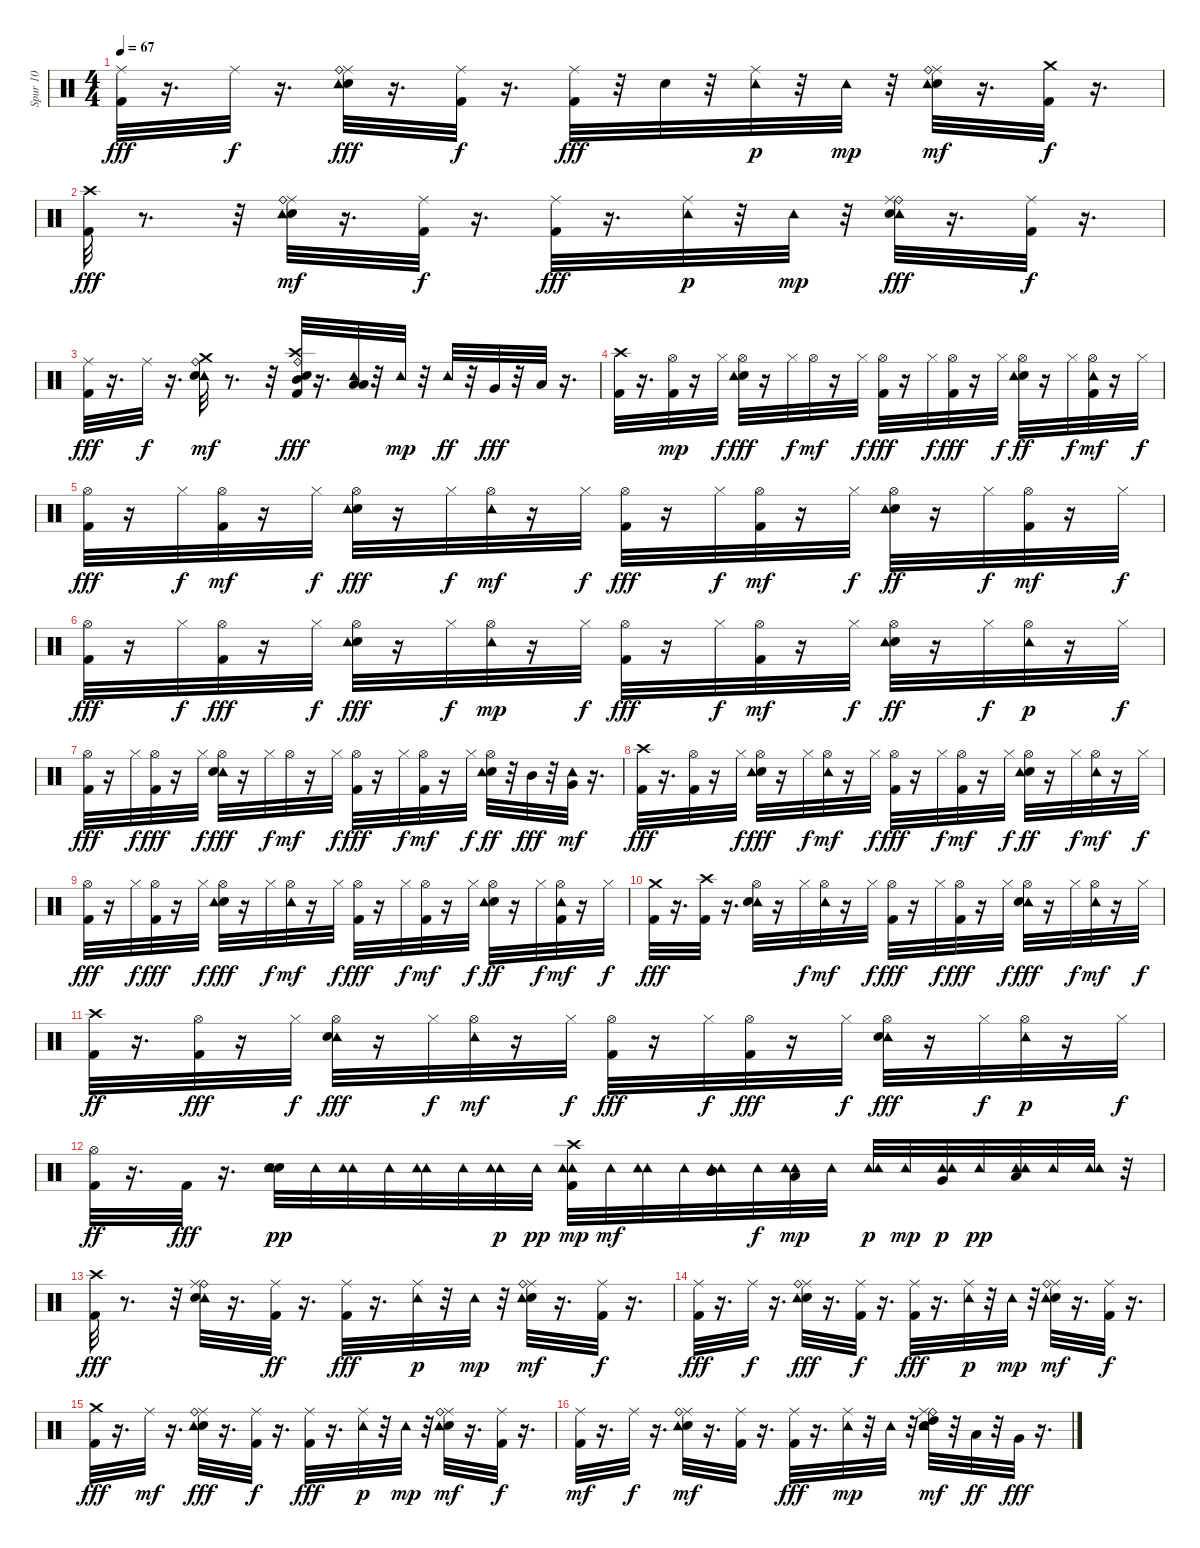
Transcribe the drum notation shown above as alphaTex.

\track ("Spur 10" "Spur 10") {instrument percussion}
\staff {score}
\articulation defaults
\ts (4 4)
\tempo 67
\clef neutral
\ks c
("Ride (middle)" "Kick (hit) 2").32{dy fff} r.16{d} "Ride (middle)".32{dy f} r.16{d} ("Snare (hit) 2" "Ride (middle)" "Ride (bell)" "Tambourine (hit)").32{dy fff} r.16{d} ("Ride (middle)" "Kick (hit) 2").32{dy f} r.16{d} ("Ride (middle)" "Kick (hit) 2").32{dy fff} r.32 "Snare (hit) 2".32 r.32 ("Tambourine (hit)" "Ride (middle)").32{dy p} r.32 "Tambourine (hit)".32{dy mp} r.32 ("Snare (hit) 2" "Ride (middle)" "Ride (bell)" "Tambourine (hit)").32{dy mf} r.16{d} ("Crash medium (hit)" "Kick (hit) 2").32{dy f} r.16{d} |
("Crash high (hit)" "Kick (hit) 2").32{dy fff} r.8{d} r.32 ("Ride (middle)" "Snare (hit) 2" "Ride (bell)" "Tambourine (hit)").32{dy mf} r.16{d} ("Ride (middle)" "Kick (hit) 2").32{dy f} r.16{d} ("Ride (middle)" "Kick (hit) 2").32{dy fff} r.16{d} ("Ride (middle)" "Tambourine (hit)").32{dy p} r.32 "Tambourine (hit)".32{dy mp} r.32 ("Tambourine (hit)" "Ride (bell)" "Snare (hit) 2" "Ride (middle)").32{dy fff} r.16{d} ("Kick (hit) 2" "Ride (middle)").32{dy f} r.16{d} |
("Ride (middle)" "Kick (hit) 2").32{dy fff} r.16{d} "Ride (middle)".32{dy f} r.16{d} ("Tambourine (hit)" "Crash medium (hit)" "Snare (hit) 2" "Ride (bell)").32{dy mf} r.8{d} r.32 ("Kick (hit) 2" "Crash high (hit)" "Snare (hit) 2" "Ride (bell)" "Mid Tom (hit)").32{dy fff} r.16{d} ("Low Tom (hit)" "Tambourine (hit)" "Low Tom (hit)").32 r.32 "Tambourine (hit)".32{dy mp} r.32 "Tambourine (hit)".32{dy ff} r.32 "Very Low Tom (hit)".32{dy fff} r.32 "Low Floor Tom (hit)".32 r.16{d} |
("Crash high (hit)" "Kick (hit) 2").32 r.16{d} ("Kick (hit) 2" "Hi-Hat (open)").32{dy mp} r.16 "Hi-Hat (closed)".32{dy f} ("Snare (hit) 2" "Hi-Hat (open)" "Tambourine (hit)").32{dy fff} r.16 "Hi-Hat (closed)".32{dy f} "Hi-Hat (open)".32{dy mf} r.16 "Hi-Hat (closed)".32{dy f} ("Hi-Hat (open)" "Kick (hit) 2").32{dy fff} r.16 "Hi-Hat (closed)".32{dy f} ("Hi-Hat (open)" "Kick (hit) 2").32{dy fff} r.16 "Hi-Hat (closed)".32{dy f} ("Snare (hit) 2" "Hi-Hat (open)" "Tambourine (hit)").32{dy ff} r.16 "Hi-Hat (closed)".32{dy f} ("Kick (hit) 2" "Tambourine (hit)" "Hi-Hat (open)").32{dy mf} r.16 "Hi-Hat (closed)".32{dy f} |
("Kick (hit) 2" "Hi-Hat (open)").32{dy fff} r.16 "Hi-Hat (closed)".32{dy f} ("Kick (hit) 2" "Hi-Hat (open)").32{dy mf} r.16 "Hi-Hat (closed)".32{dy f} ("Snare (hit) 2" "Hi-Hat (open)" "Tambourine (hit)").32{dy fff} r.16 "Hi-Hat (closed)".32{dy f} ("Tambourine (hit)" "Hi-Hat (open)").32{dy mf} r.16 "Hi-Hat (closed)".32{dy f} ("Hi-Hat (open)" "Kick (hit) 2").32{dy fff} r.16 "Hi-Hat (closed)".32{dy f} ("Kick (hit) 2" "Hi-Hat (open)").32{dy mf} r.16 "Hi-Hat (closed)".32{dy f} ("Snare (hit) 2" "Hi-Hat (open)" "Tambourine (hit)").32{dy ff} r.16 "Hi-Hat (closed)".32{dy f} ("Hi-Hat (open)" "Kick (hit) 2").32{dy mf} r.16 "Hi-Hat (closed)".32{dy f} |
("Hi-Hat (open)" "Kick (hit) 2").32{dy fff} r.16 "Hi-Hat (closed)".32{dy f} ("Hi-Hat (open)" "Kick (hit) 2").32{dy fff} r.16 "Hi-Hat (closed)".32{dy f} ("Snare (hit) 2" "Hi-Hat (open)" "Tambourine (hit)").32{dy fff} r.16 "Hi-Hat (closed)".32{dy f} ("Hi-Hat (open)" "Tambourine (hit)").32{dy mp} r.16 "Hi-Hat (closed)".32{dy f} ("Kick (hit) 2" "Hi-Hat (open)").32{dy fff} r.16 "Hi-Hat (closed)".32{dy f} ("Kick (hit) 2" "Hi-Hat (open)").32{dy mf} r.16 "Hi-Hat (closed)".32{dy f} ("Snare (hit) 2" "Hi-Hat (open)" "Tambourine (hit)").32{dy ff} r.16 "Hi-Hat (closed)".32{dy f} ("Hi-Hat (open)" "Tambourine (hit)").32{dy p} r.16 "Hi-Hat (closed)".32{dy f} |
("Kick (hit) 2" "Hi-Hat (open)").32{dy fff} r.16 "Hi-Hat (closed)".32{dy f} ("Hi-Hat (open)" "Kick (hit) 2").32{dy fff} r.16 "Hi-Hat (closed)".32{dy f} ("Tambourine (hit)" "Hi-Hat (open)" "Snare (hit) 2").32{dy fff} r.16 "Hi-Hat (closed)".32{dy f} "Hi-Hat (open)".32{dy mf} r.16 "Hi-Hat (closed)".32{dy f} ("Hi-Hat (open)" "Kick (hit) 2").32{dy fff} r.16 "Hi-Hat (closed)".32{dy f} ("Kick (hit) 2" "Hi-Hat (open)").32{dy mf} r.16 "Hi-Hat (closed)".32{dy f} ("Hi-Hat (open)" "Snare (hit) 2" "Tambourine (hit)").32{dy ff} r.32 "Mid Tom (hit)".32{dy fff} r.32 ("Very Low Tom (hit)" "Tambourine (hit)").32{dy mf} r.16{d} |
("Kick (hit) 2" "Crash high (hit)").32{dy fff} r.16{d} ("Hi-Hat (open)" "Kick (hit) 2").32 r.16 "Hi-Hat (closed)".32{dy f} ("Hi-Hat (open)" "Snare (hit) 2" "Tambourine (hit)").32{dy fff} r.16 "Hi-Hat (closed)".32{dy f} ("Tambourine (hit)" "Hi-Hat (open)").32{dy mf} r.16 "Hi-Hat (closed)".32{dy f} ("Hi-Hat (open)" "Kick (hit) 2").32{dy fff} r.16 "Hi-Hat (closed)".32{dy f} ("Kick (hit) 2" "Hi-Hat (open)").32{dy mf} r.16 "Hi-Hat (closed)".32{dy f} ("Snare (hit) 2" "Tambourine (hit)" "Hi-Hat (open)").32{dy ff} r.16 "Hi-Hat (closed)".32{dy f} ("Hi-Hat (open)" "Tambourine (hit)").32{dy mf} r.16 "Hi-Hat (closed)".32{dy f} |
("Hi-Hat (open)" "Kick (hit) 2").32{dy fff} r.16 "Hi-Hat (closed)".32{dy f} ("Hi-Hat (open)" "Kick (hit) 2").32{dy fff} r.16 "Hi-Hat (closed)".32{dy f} ("Hi-Hat (open)" "Snare (hit) 2" "Tambourine (hit)").32{dy fff} r.16 "Hi-Hat (closed)".32{dy f} ("Tambourine (hit)" "Hi-Hat (open)").32{dy mf} r.16 "Hi-Hat (closed)".32{dy f} ("Hi-Hat (open)" "Kick (hit) 2").32{dy fff} r.16 "Hi-Hat (closed)".32{dy f} ("Kick (hit) 2" "Hi-Hat (open)").32{dy mf} r.16 "Hi-Hat (closed)".32{dy f} ("Snare (hit) 2" "Hi-Hat (open)" "Tambourine (hit)").32{dy ff} r.16 "Hi-Hat (closed)".32{dy f} ("Tambourine (hit)" "Hi-Hat (open)" "Kick (hit) 2").32{dy mf} r.16 "Hi-Hat (closed)".32{dy f} |
("Crash medium (hit)" "Kick (hit) 2").32{dy fff} r.16{d} ("Crash high (hit)" "Kick (hit) 2").32 r.16{d} ("Tambourine (hit)" "Hi-Hat (open)" "Snare (hit) 2").32 r.16 "Hi-Hat (closed)".32{dy f} ("Tambourine (hit)" "Hi-Hat (open)").32{dy mf} r.16 "Hi-Hat (closed)".32{dy f} ("Kick (hit) 2" "Hi-Hat (open)").32{dy fff} r.16 "Hi-Hat (closed)".32{dy f} ("Hi-Hat (open)" "Kick (hit) 2").32{dy fff} r.16 "Hi-Hat (closed)".32{dy f} ("Tambourine (hit)" "Hi-Hat (open)" "Snare (hit) 2").32{dy fff} r.16 "Hi-Hat (closed)".32{dy f} ("Tambourine (hit)" "Hi-Hat (open)").32{dy mf} r.16 "Hi-Hat (closed)".32{dy f} |
("Kick (hit) 2" "Crash high (hit)").32{dy ff} r.16{d} ("Hi-Hat (open)" "Kick (hit) 2").32{dy fff} r.16 "Hi-Hat (closed)".32{dy f} ("Tambourine (hit)" "Hi-Hat (open)" "Snare (hit) 2").32{dy fff} r.16 "Hi-Hat (closed)".32{dy f} ("Tambourine (hit)" "Hi-Hat (open)").32{dy mf} r.16 "Hi-Hat (closed)".32{dy f} ("Kick (hit) 2" "Hi-Hat (open)").32{dy fff} r.16 "Hi-Hat (closed)".32{dy f} ("Hi-Hat (open)" "Kick (hit) 2").32{dy fff} r.16 "Hi-Hat (closed)".32{dy f} ("Tambourine (hit)" "Hi-Hat (open)" "Snare (hit) 2").32{dy fff} r.16 "Hi-Hat (closed)".32{dy f} ("Hi-Hat (open)" "Tambourine (hit)").32{dy p} r.16 "Hi-Hat (closed)".32{dy f} |
("Kick (hit) 2" "Hi-Hat (open)").32{dy ff} r.16{d} "Kick (hit) 2".32{dy fff} r.16{d} ("Snare (hit) 2" "Tambourine (hit)" "Snare (hit) 2" "Tambourine (hit)").32{dy pp} "Tambourine (hit)".32 ("Tambourine (hit)" "Tambourine (hit)").32 "Tambourine (hit)".32 ("Tambourine (hit)" "Tambourine (hit)").32 "Tambourine (hit)".32 ("Tambourine (hit)" "Tambourine (hit)").32{dy p} "Tambourine (hit)".32{dy pp} ("Tambourine (hit)" "Crash high (hit)" "Kick (hit) 2" "Tambourine (hit)").32{dy mp} "Tambourine (hit)".32{dy mf} ("Tambourine (hit)" "Tambourine (hit)").32 "Tambourine (hit)".32 ("Mid Tom (hit)" "Tambourine (hit)" "Mid Tom (hit)" "Tambourine (hit)").32 "Tambourine (hit)".32{dy f} ("Low Tom (hit)" "Tambourine (hit)" "Tambourine (hit)").32{dy mp} "Tambourine (hit)".32 ("Tambourine (hit)" "Tambourine (hit)").32{dy p} "Tambourine (hit)".32{dy mp} ("Very Low Tom (hit)" "Tambourine (hit)" "Tambourine (hit)").32{dy p} "Tambourine (hit)".32{dy pp} ("Low Floor Tom (hit)" "Tambourine (hit)" "Tambourine (hit)").32 "Tambourine (hit)".32 ("Tambourine (hit)" "Tambourine (hit)").32 r.32 |
("Kick (hit) 2" "Crash high (hit)").32{dy fff} r.8{d} r.32 ("Tambourine (hit)" "Ride (bell)" "Ride (middle)" "Snare (hit) 2").32 r.16{d} ("Kick (hit) 2" "Ride (middle)").32{dy ff} r.16{d} ("Kick (hit) 2" "Ride (middle)").32{dy fff} r.16{d} ("Ride (middle)" "Tambourine (hit)").32{dy p} r.32 "Tambourine (hit)".32{dy mp} r.32 ("Snare (hit) 2" "Ride (middle)" "Tambourine (hit)" "Ride (bell)").32{dy mf} r.16{d} ("Ride (middle)" "Kick (hit) 2").32{dy f} r.16{d} |
("Ride (middle)" "Kick (hit) 2").32{dy fff} r.16{d} "Ride (middle)".32{dy f} r.16{d} ("Snare (hit) 2" "Ride (middle)" "Tambourine (hit)" "Ride (bell)").32{dy fff} r.16{d} ("Ride (middle)" "Kick (hit) 2").32{dy f} r.16{d} ("Ride (middle)" "Kick (hit) 2").32{dy fff} r.16{d} ("Tambourine (hit)" "Ride (middle)").32{dy p} r.32 "Tambourine (hit)".32{dy mp} r.32 ("Snare (hit) 2" "Ride (middle)" "Ride (bell)" "Tambourine (hit)").32{dy mf} r.16{d} ("Ride (middle)" "Kick (hit) 2").32{dy f} r.16{d} |
("Kick (hit) 2" "Crash medium (hit)").32{dy fff} r.16{d} "Ride (middle)".32{dy mf} r.16{d} ("Snare (hit) 2" "Ride (middle)" "Ride (bell)" "Tambourine (hit)").32{dy fff} r.16{d} ("Ride (middle)" "Kick (hit) 2").32{dy f} r.16{d} ("Ride (middle)" "Kick (hit) 2").32{dy fff} r.16{d} ("Ride (middle)" "Tambourine (hit)").32{dy p} r.32 "Tambourine (hit)".32{dy mp} r.32 ("Snare (hit) 2" "Ride (middle)" "Ride (bell)" "Tambourine (hit)").32{dy mf} r.16{d} ("Ride (middle)" "Kick (hit) 2").32{dy f} r.16{d} |
("Kick (hit) 2" "Ride (middle)").32{dy mf} r.16{d} "Ride (middle)".32{dy f} r.16{d} ("Snare (hit) 2" "Ride (middle)" "Ride (bell)" "Tambourine (hit)").32{dy mf} r.16{d} ("Kick (hit) 2" "Ride (middle)").32 r.16{d} ("Ride (middle)" "Kick (hit) 2").32{dy fff} r.16{d} ("Tambourine (hit)" "Ride (middle)").32{dy mp} r.32 "Tambourine (hit)".32 r.32 ("Ride (bell)" "High Tom (hit)" "Tambourine (hit)" "Snare (hit) 2" "Ride (middle)").32{dy mf} r.32 "Low Tom (hit)".32{dy ff} r.32 "Very Low Tom (hit)".32{dy fff} r.16{d}
